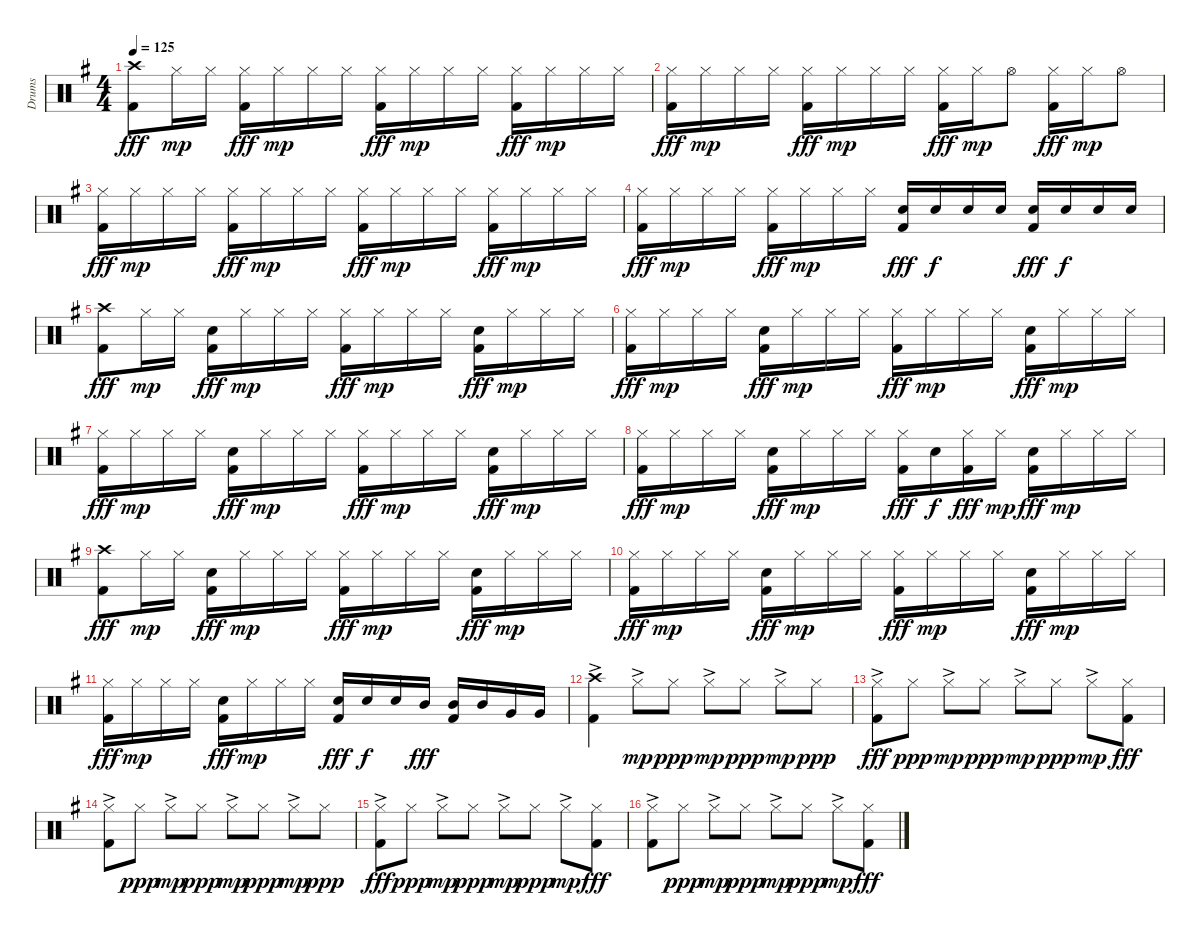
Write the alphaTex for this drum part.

\track ("Drums" "Drums") {instrument percussion}
\staff {score}
\articulation defaults
\ts (4 4)
\tempo 125
\clef neutral
\ks eminor
("Crash high (hit)" "Kick (hit) 2").8{dy fff} "Hi-Hat (closed)".16{dy mp} "Hi-Hat (closed)".16 ("Hi-Hat (closed)" "Kick (hit) 2").16{dy fff} "Hi-Hat (closed)".16{dy mp} "Hi-Hat (closed)".16 "Hi-Hat (closed)".16 ("Hi-Hat (closed)" "Kick (hit) 2").16{dy fff} "Hi-Hat (closed)".16{dy mp} "Hi-Hat (closed)".16 "Hi-Hat (closed)".16 ("Hi-Hat (closed)" "Kick (hit) 2").16{dy fff} "Hi-Hat (closed)".16{dy mp} "Hi-Hat (closed)".16 "Hi-Hat (closed)".16 |
("Hi-Hat (closed)" "Kick (hit) 2").16{dy fff} "Hi-Hat (closed)".16{dy mp} "Hi-Hat (closed)".16 "Hi-Hat (closed)".16 ("Hi-Hat (closed)" "Kick (hit) 2").16{dy fff} "Hi-Hat (closed)".16{dy mp} "Hi-Hat (closed)".16 "Hi-Hat (closed)".16 ("Hi-Hat (closed)" "Kick (hit) 2").16{dy fff} "Hi-Hat (closed)".16{dy mp} "Hi-Hat (open)".8 ("Hi-Hat (closed)" "Kick (hit) 2").16{dy fff} "Hi-Hat (closed)".16{dy mp} "Hi-Hat (open)".8 |
("Hi-Hat (closed)" "Kick (hit) 2").16{dy fff} "Hi-Hat (closed)".16{dy mp} "Hi-Hat (closed)".16 "Hi-Hat (closed)".16 ("Hi-Hat (closed)" "Kick (hit) 2").16{dy fff} "Hi-Hat (closed)".16{dy mp} "Hi-Hat (closed)".16 "Hi-Hat (closed)".16 ("Hi-Hat (closed)" "Kick (hit) 2").16{dy fff} "Hi-Hat (closed)".16{dy mp} "Hi-Hat (closed)".16 "Hi-Hat (closed)".16 ("Hi-Hat (closed)" "Kick (hit) 2").16{dy fff} "Hi-Hat (closed)".16{dy mp} "Hi-Hat (closed)".16 "Hi-Hat (closed)".16 |
("Hi-Hat (closed)" "Kick (hit) 2").16{dy fff} "Hi-Hat (closed)".16{dy mp} "Hi-Hat (closed)".16 "Hi-Hat (closed)".16 ("Hi-Hat (closed)" "Kick (hit) 2").16{dy fff} "Hi-Hat (closed)".16{dy mp} "Hi-Hat (closed)".16 "Hi-Hat (closed)".16 ("Electric Snare (hit)" "Kick (hit) 2").16{dy fff} "Electric Snare (hit)".16{dy f} "Electric Snare (hit)".16 "Electric Snare (hit)".16 ("Electric Snare (hit)" "Kick (hit) 2").16{dy fff} "Electric Snare (hit)".16{dy f} "Electric Snare (hit)".16 "Electric Snare (hit)".16 |
("Crash high (hit)" "Kick (hit) 2").8{dy fff} "Hi-Hat (closed)".16{dy mp} "Hi-Hat (closed)".16 ("Electric Snare (hit)" "Kick (hit) 2").16{dy fff} "Hi-Hat (closed)".16{dy mp} "Hi-Hat (closed)".16 "Hi-Hat (closed)".16 ("Hi-Hat (closed)" "Kick (hit) 2").16{dy fff} "Hi-Hat (closed)".16{dy mp} "Hi-Hat (closed)".16 "Hi-Hat (closed)".16 ("Electric Snare (hit)" "Kick (hit) 2").16{dy fff} "Hi-Hat (closed)".16{dy mp} "Hi-Hat (closed)".16 "Hi-Hat (closed)".16 |
("Hi-Hat (closed)" "Kick (hit) 2").16{dy fff} "Hi-Hat (closed)".16{dy mp} "Hi-Hat (closed)".16 "Hi-Hat (closed)".16 ("Electric Snare (hit)" "Kick (hit) 2").16{dy fff} "Hi-Hat (closed)".16{dy mp} "Hi-Hat (closed)".16 "Hi-Hat (closed)".16 ("Hi-Hat (closed)" "Kick (hit) 2").16{dy fff} "Hi-Hat (closed)".16{dy mp} "Hi-Hat (closed)".16 "Hi-Hat (closed)".16 ("Electric Snare (hit)" "Kick (hit) 2").16{dy fff} "Hi-Hat (closed)".16{dy mp} "Hi-Hat (closed)".16 "Hi-Hat (closed)".16 |
("Hi-Hat (closed)" "Kick (hit) 2").16{dy fff} "Hi-Hat (closed)".16{dy mp} "Hi-Hat (closed)".16 "Hi-Hat (closed)".16 ("Electric Snare (hit)" "Kick (hit) 2").16{dy fff} "Hi-Hat (closed)".16{dy mp} "Hi-Hat (closed)".16 "Hi-Hat (closed)".16 ("Hi-Hat (closed)" "Kick (hit) 2").16{dy fff} "Hi-Hat (closed)".16{dy mp} "Hi-Hat (closed)".16 "Hi-Hat (closed)".16 ("Electric Snare (hit)" "Kick (hit) 2").16{dy fff} "Hi-Hat (closed)".16{dy mp} "Hi-Hat (closed)".16 "Hi-Hat (closed)".16 |
("Hi-Hat (closed)" "Kick (hit) 2").16{dy fff} "Hi-Hat (closed)".16{dy mp} "Hi-Hat (closed)".16 "Hi-Hat (closed)".16 ("Electric Snare (hit)" "Kick (hit) 2").16{dy fff} "Hi-Hat (closed)".16{dy mp} "Hi-Hat (closed)".16 "Hi-Hat (closed)".16 ("Hi-Hat (closed)" "Kick (hit) 2").16{dy fff} "Electric Snare (hit)".16{dy f} ("Hi-Hat (closed)" "Kick (hit) 2").16{dy fff} "Hi-Hat (closed)".16{dy mp} ("Electric Snare (hit)" "Kick (hit) 2").16{dy fff} "Hi-Hat (closed)".16{dy mp} "Hi-Hat (closed)".16 "Hi-Hat (closed)".16 |
("Crash high (hit)" "Kick (hit) 2").8{dy fff} "Hi-Hat (closed)".16{dy mp} "Hi-Hat (closed)".16 ("Electric Snare (hit)" "Kick (hit) 2").16{dy fff} "Hi-Hat (closed)".16{dy mp} "Hi-Hat (closed)".16 "Hi-Hat (closed)".16 ("Hi-Hat (closed)" "Kick (hit) 2").16{dy fff} "Hi-Hat (closed)".16{dy mp} "Hi-Hat (closed)".16 "Hi-Hat (closed)".16 ("Electric Snare (hit)" "Kick (hit) 2").16{dy fff} "Hi-Hat (closed)".16{dy mp} "Hi-Hat (closed)".16 "Hi-Hat (closed)".16 |
("Hi-Hat (closed)" "Kick (hit) 2").16{dy fff} "Hi-Hat (closed)".16{dy mp} "Hi-Hat (closed)".16 "Hi-Hat (closed)".16 ("Electric Snare (hit)" "Kick (hit) 2").16{dy fff} "Hi-Hat (closed)".16{dy mp} "Hi-Hat (closed)".16 "Hi-Hat (closed)".16 ("Hi-Hat (closed)" "Kick (hit) 2").16{dy fff} "Hi-Hat (closed)".16{dy mp} "Hi-Hat (closed)".16 "Hi-Hat (closed)".16 ("Electric Snare (hit)" "Kick (hit) 2").16{dy fff} "Hi-Hat (closed)".16{dy mp} "Hi-Hat (closed)".16 "Hi-Hat (closed)".16 |
("Hi-Hat (closed)" "Kick (hit) 2").16{dy fff} "Hi-Hat (closed)".16{dy mp} "Hi-Hat (closed)".16 "Hi-Hat (closed)".16 ("Electric Snare (hit)" "Kick (hit) 2").16{dy fff} "Hi-Hat (closed)".16{dy mp} "Hi-Hat (closed)".16 "Hi-Hat (closed)".16 ("Electric Snare (hit)" "Kick (hit) 2").16{dy fff} "Electric Snare (hit)".16{dy f} "Electric Snare (hit)".16 "Mid Tom (hit)".16{dy fff} ("Mid Tom (hit)" "Kick (hit) 2").16 "Mid Tom (hit)".16 "Very Low Tom (hit)".16 "Very Low Tom (hit)".16 |
("Crash high (hit)"{ac} "Kick (hit) 2").4 "Hi-Hat (closed)"{ac}.8{dy mp} "Hi-Hat (closed)".8{dy ppp} "Hi-Hat (closed)"{ac}.8{dy mp} "Hi-Hat (closed)".8{dy ppp} "Hi-Hat (closed)"{ac}.8{dy mp} "Hi-Hat (closed)".8{dy ppp} |
("Hi-Hat (closed)"{ac} "Kick (hit) 2").8{dy fff} "Hi-Hat (closed)".8{dy ppp} "Hi-Hat (closed)"{ac}.8{dy mp} "Hi-Hat (closed)".8{dy ppp} "Hi-Hat (closed)"{ac}.8{dy mp} "Hi-Hat (closed)".8{dy ppp} "Hi-Hat (closed)"{ac}.8{dy mp} ("Hi-Hat (closed)" "Kick (hit) 2").8{dy fff} |
("Hi-Hat (closed)"{ac} "Kick (hit) 2").8 "Hi-Hat (closed)".8{dy ppp} "Hi-Hat (closed)"{ac}.8{dy mp} "Hi-Hat (closed)".8{dy ppp} "Hi-Hat (closed)"{ac}.8{dy mp} "Hi-Hat (closed)".8{dy ppp} "Hi-Hat (closed)"{ac}.8{dy mp} "Hi-Hat (closed)".8{dy ppp} |
("Hi-Hat (closed)"{ac} "Kick (hit) 2").8{dy fff} "Hi-Hat (closed)".8{dy ppp} "Hi-Hat (closed)"{ac}.8{dy mp} "Hi-Hat (closed)".8{dy ppp} "Hi-Hat (closed)"{ac}.8{dy mp} "Hi-Hat (closed)".8{dy ppp} "Hi-Hat (closed)"{ac}.8{dy mp} ("Hi-Hat (closed)" "Kick (hit) 2").8{dy fff} |
("Hi-Hat (closed)"{ac} "Kick (hit) 2").8 "Hi-Hat (closed)".8{dy ppp} "Hi-Hat (closed)"{ac}.8{dy mp} "Hi-Hat (closed)".8{dy ppp} "Hi-Hat (closed)"{ac}.8{dy mp} "Hi-Hat (closed)".8{dy ppp} "Hi-Hat (closed)"{ac}.8{dy mp} ("Hi-Hat (closed)" "Kick (hit) 2").8{dy fff}
